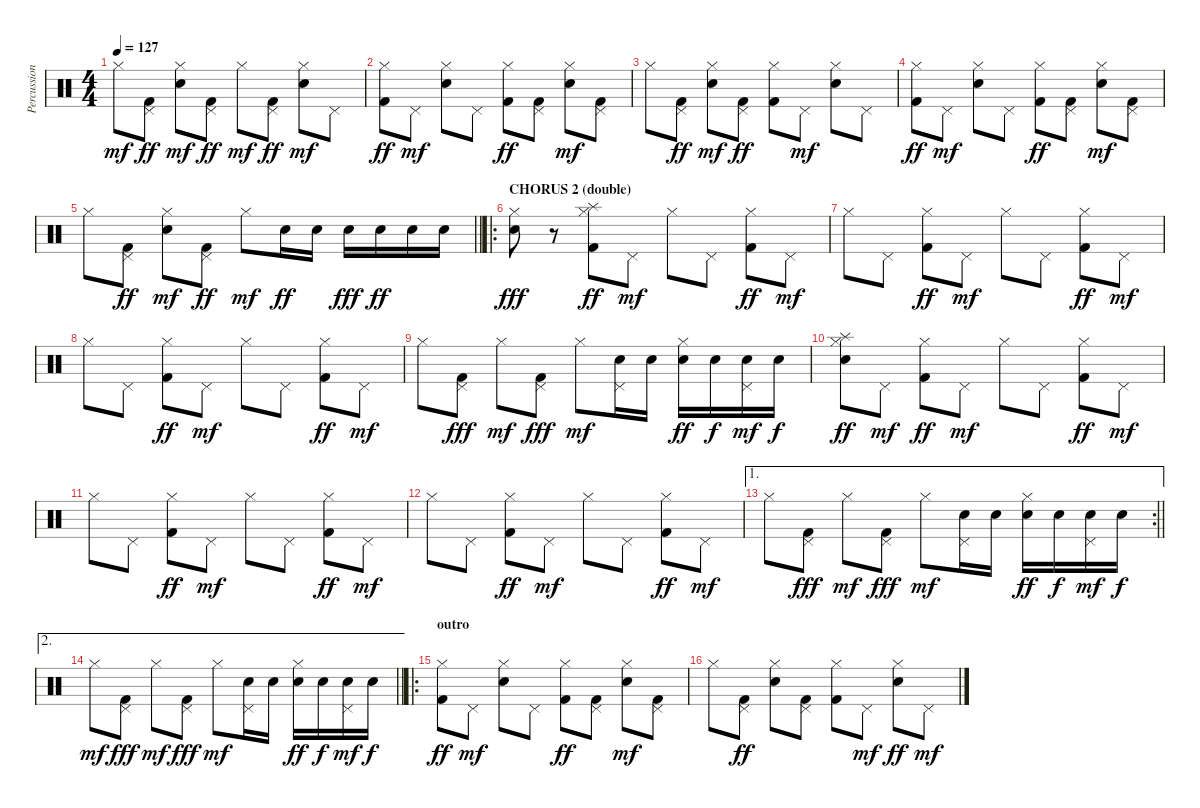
\track ("Percussion" "Percussion") {instrument percussion}
\staff {score}
\articulation defaults
\ts (4 4)
\tempo 127
\clef neutral
\ks c "Hi-Hat (closed)".8{dy mf}
("Pedal Hi-Hat (hit)" "Kick (hit) 2").8{dy ff} ("Hi-Hat (closed)" "Snare (hit) 2").8{dy mf} ("Pedal Hi-Hat (hit)" "Kick (hit) 2").8{dy ff} "Hi-Hat (closed)".8{dy mf} ("Pedal Hi-Hat (hit)" "Kick (hit) 2").8{dy ff} ("Hi-Hat (closed)" "Snare (hit) 2").8{dy mf} "Pedal Hi-Hat (hit)".8 |
("Hi-Hat (closed)" "Kick (hit) 2").8{dy ff} "Pedal Hi-Hat (hit)".8{dy mf} ("Hi-Hat (closed)" "Snare (hit) 2").8 "Pedal Hi-Hat (hit)".8 ("Hi-Hat (closed)" "Kick (hit) 2").8{dy ff} ("Pedal Hi-Hat (hit)" "Kick (hit) 2").8 ("Hi-Hat (closed)" "Snare (hit) 2").8{dy mf} ("Pedal Hi-Hat (hit)" "Kick (hit) 2").8 |
"Hi-Hat (closed)".8 ("Pedal Hi-Hat (hit)" "Kick (hit) 2").8{dy ff} ("Hi-Hat (closed)" "Snare (hit) 2").8{dy mf} ("Pedal Hi-Hat (hit)" "Kick (hit) 2").8{dy ff} ("Hi-Hat (closed)" "Kick (hit) 2").8 "Pedal Hi-Hat (hit)".8{dy mf} ("Hi-Hat (closed)" "Snare (hit) 2").8 "Pedal Hi-Hat (hit)".8 |
("Hi-Hat (closed)" "Kick (hit) 2").8{dy ff} "Pedal Hi-Hat (hit)".8{dy mf} ("Hi-Hat (closed)" "Snare (hit) 2").8 "Pedal Hi-Hat (hit)".8 ("Hi-Hat (closed)" "Kick (hit) 2").8{dy ff} ("Pedal Hi-Hat (hit)" "Kick (hit) 2").8 ("Hi-Hat (closed)" "Snare (hit) 2").8{dy mf} ("Pedal Hi-Hat (hit)" "Kick (hit) 2").8 |
\barLineRight lightlight "Hi-Hat (closed)".8
("Pedal Hi-Hat (hit)" "Kick (hit) 2").8{dy ff} ("Hi-Hat (closed)" "Snare (hit) 2").8{dy mf} ("Pedal Hi-Hat (hit)" "Kick (hit) 2").8{dy ff} "Hi-Hat (closed)".8{dy mf} "Electric Snare (hit)".16{dy ff} "Electric Snare (hit)".16 "Snare (hit) 2".16{dy fff} "Electric Snare (hit)".16{dy ff} "Electric Snare (hit)".16 "Electric Snare (hit)".16 |
\ro
\section ("" "CHORUS 2 (double)")
("Hi-Hat (closed)" "Snare (hit) 2").8{dy fff} r.8 ("Hi-Hat (closed)" "Splash (hit)" "Kick (hit) 2").8{dy ff} "Pedal Hi-Hat (hit)".8{dy mf} "Hi-Hat (closed)".8 "Pedal Hi-Hat (hit)".8 ("Hi-Hat (closed)" "Kick (hit) 2").8{dy ff} "Pedal Hi-Hat (hit)".8{dy mf} |
"Hi-Hat (closed)".8 "Pedal Hi-Hat (hit)".8 ("Hi-Hat (closed)" "Kick (hit) 2").8{dy ff} "Pedal Hi-Hat (hit)".8{dy mf} "Hi-Hat (closed)".8 "Pedal Hi-Hat (hit)".8 ("Hi-Hat (closed)" "Kick (hit) 2").8{dy ff} "Pedal Hi-Hat (hit)".8{dy mf} |
"Hi-Hat (closed)".8 "Pedal Hi-Hat (hit)".8 ("Hi-Hat (closed)" "Kick (hit) 2").8{dy ff} "Pedal Hi-Hat (hit)".8{dy mf} "Hi-Hat (closed)".8 "Pedal Hi-Hat (hit)".8 ("Hi-Hat (closed)" "Kick (hit) 2").8{dy ff} "Pedal Hi-Hat (hit)".8{dy mf} |
"Hi-Hat (closed)".8 ("Pedal Hi-Hat (hit)" "Kick (hit) 2").8{dy fff} "Hi-Hat (closed)".8{dy mf} ("Pedal Hi-Hat (hit)" "Kick (hit) 2").8{dy fff} "Hi-Hat (closed)".8{dy mf} ("Pedal Hi-Hat (hit)" "Snare (hit) 2").16 "Snare (hit) 2".16 ("Hi-Hat (closed)" "Electric Snare (hit)").16{dy ff} "Snare (hit) 2".16{dy f} ("Pedal Hi-Hat (hit)" "Snare (hit) 2").16{dy mf} "Snare (hit) 2".16{dy f} |
("Hi-Hat (closed)" "Splash (hit)" "Electric Snare (hit)").8{dy ff} "Pedal Hi-Hat (hit)".8{dy mf} ("Hi-Hat (closed)" "Kick (hit) 2").8{dy ff} "Pedal Hi-Hat (hit)".8{dy mf} "Hi-Hat (closed)".8 "Pedal Hi-Hat (hit)".8 ("Hi-Hat (closed)" "Kick (hit) 2").8{dy ff} "Pedal Hi-Hat (hit)".8{dy mf} |
"Hi-Hat (closed)".8 "Pedal Hi-Hat (hit)".8 ("Hi-Hat (closed)" "Kick (hit) 2").8{dy ff} "Pedal Hi-Hat (hit)".8{dy mf} "Hi-Hat (closed)".8 "Pedal Hi-Hat (hit)".8 ("Hi-Hat (closed)" "Kick (hit) 2").8{dy ff} "Pedal Hi-Hat (hit)".8{dy mf} |
"Hi-Hat (closed)".8 "Pedal Hi-Hat (hit)".8 ("Hi-Hat (closed)" "Kick (hit) 2").8{dy ff} "Pedal Hi-Hat (hit)".8{dy mf} "Hi-Hat (closed)".8 "Pedal Hi-Hat (hit)".8 ("Hi-Hat (closed)" "Kick (hit) 2").8{dy ff} "Pedal Hi-Hat (hit)".8{dy mf} |
\ae 1
\rc 2
\barLineRight lightlight "Hi-Hat (closed)".8
("Pedal Hi-Hat (hit)" "Kick (hit) 2").8{dy fff} "Hi-Hat (closed)".8{dy mf} ("Pedal Hi-Hat (hit)" "Kick (hit) 2").8{dy fff} "Hi-Hat (closed)".8{dy mf} ("Pedal Hi-Hat (hit)" "Snare (hit) 2").16 "Snare (hit) 2".16 ("Hi-Hat (closed)" "Electric Snare (hit)").16{dy ff} "Snare (hit) 2".16{dy f} ("Pedal Hi-Hat (hit)" "Snare (hit) 2").16{dy mf} "Snare (hit) 2".16{dy f} |
\ae 2
\barLineRight lightlight "Hi-Hat (closed)".8{dy mf}
("Pedal Hi-Hat (hit)" "Kick (hit) 2").8{dy fff} "Hi-Hat (closed)".8{dy mf} ("Pedal Hi-Hat (hit)" "Kick (hit) 2").8{dy fff} "Hi-Hat (closed)".8{dy mf} ("Pedal Hi-Hat (hit)" "Snare (hit) 2").16 "Snare (hit) 2".16 ("Hi-Hat (closed)" "Electric Snare (hit)").16{dy ff} "Snare (hit) 2".16{dy f} ("Pedal Hi-Hat (hit)" "Snare (hit) 2").16{dy mf} "Snare (hit) 2".16{dy f} |
\ro
\section ("" "outro")
("Hi-Hat (closed)" "Kick (hit) 2").8{dy ff} "Pedal Hi-Hat (hit)".8{dy mf} ("Hi-Hat (closed)" "Snare (hit) 2").8 "Pedal Hi-Hat (hit)".8 ("Hi-Hat (closed)" "Kick (hit) 2").8{dy ff} ("Pedal Hi-Hat (hit)" "Kick (hit) 2").8 ("Hi-Hat (closed)" "Snare (hit) 2").8{dy mf} ("Pedal Hi-Hat (hit)" "Kick (hit) 2").8 |
"Hi-Hat (closed)".8 ("Pedal Hi-Hat (hit)" "Kick (hit) 2").8{dy ff} ("Hi-Hat (closed)" "Snare (hit) 2").8 ("Pedal Hi-Hat (hit)" "Kick (hit) 2").8 ("Hi-Hat (closed)" "Kick (hit) 2").8 "Pedal Hi-Hat (hit)".8{dy mf} ("Hi-Hat (closed)" "Snare (hit) 2").8{dy ff} "Pedal Hi-Hat (hit)".8{dy mf}
